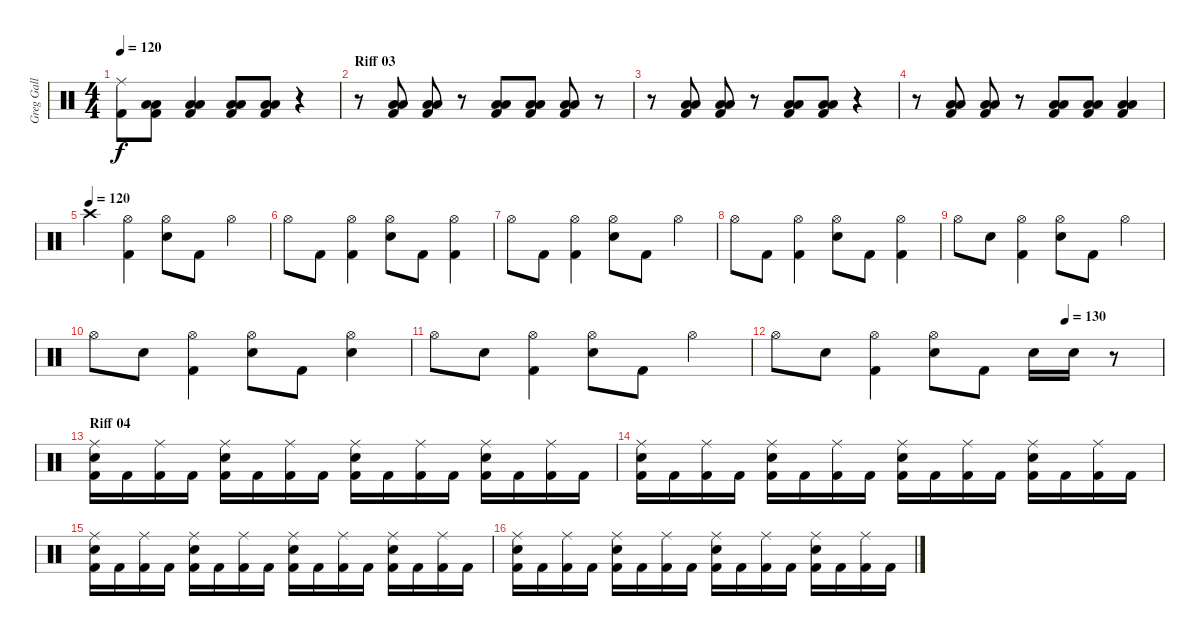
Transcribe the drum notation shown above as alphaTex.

\track ("Greg Gall" "Greg Gall") {instrument percussion}
\staff {score}
\articulation defaults
\ts (4 4)
\tempo 120
\clef neutral
\ks c
("Ride (middle)" "Kick (hit) 2").8{dy f} ("Low Floor Tom (hit)" "Low Floor Tom (hit)" "Kick (hit) 2").8 ("Low Floor Tom (hit)" "Low Floor Tom (hit)" "Kick (hit) 2").4 ("Low Floor Tom (hit)" "Low Floor Tom (hit)" "Kick (hit) 2").8 ("Low Floor Tom (hit)" "Low Floor Tom (hit)" "Kick (hit) 2").8 r.4 |
\section ("" "Riff 03")
r.8 ("Low Floor Tom (hit)" "Low Floor Tom (hit)" "Kick (hit) 2").8 ("Low Floor Tom (hit)" "Low Floor Tom (hit)" "Kick (hit) 2").8 r.8 ("Low Floor Tom (hit)" "Low Floor Tom (hit)" "Kick (hit) 2").8 ("Low Floor Tom (hit)" "Low Floor Tom (hit)" "Kick (hit) 2").8 ("Low Floor Tom (hit)" "Low Floor Tom (hit)" "Kick (hit) 2").8 r.8 |
r.8 ("Low Floor Tom (hit)" "Low Floor Tom (hit)" "Kick (hit) 2").8 ("Low Floor Tom (hit)" "Low Floor Tom (hit)" "Kick (hit) 2").8 r.8 ("Low Floor Tom (hit)" "Low Floor Tom (hit)" "Kick (hit) 2").8 ("Low Floor Tom (hit)" "Low Floor Tom (hit)" "Kick (hit) 2").8 r.4 |
r.8 ("Low Floor Tom (hit)" "Low Floor Tom (hit)" "Kick (hit) 2").8 ("Low Floor Tom (hit)" "Low Floor Tom (hit)" "Kick (hit) 2").8 r.8 ("Low Floor Tom (hit)" "Low Floor Tom (hit)" "Kick (hit) 2").8 ("Low Floor Tom (hit)" "Low Floor Tom (hit)" "Kick (hit) 2").8 ("Low Floor Tom (hit)" "Low Floor Tom (hit)" "Kick (hit) 2").4 |
\tempo (120)
"Crash high (hit)".4 ("Hi-Hat (open)" "Kick (hit) 2").4 ("Hi-Hat (open)" "Electric Snare (hit)").8 "Kick (hit) 2".8 "Hi-Hat (open)".4 |
"Hi-Hat (open)".8 "Kick (hit) 2".8 ("Hi-Hat (open)" "Kick (hit) 2").4 ("Hi-Hat (open)" "Electric Snare (hit)").8 "Kick (hit) 2".8 ("Hi-Hat (open)" "Kick (hit) 2").4 |
"Hi-Hat (open)".8 "Kick (hit) 2".8 ("Hi-Hat (open)" "Kick (hit) 2").4 ("Hi-Hat (open)" "Electric Snare (hit)").8 "Kick (hit) 2".8 "Hi-Hat (open)".4 |
"Hi-Hat (open)".8 "Kick (hit) 2".8 ("Hi-Hat (open)" "Kick (hit) 2").4 ("Hi-Hat (open)" "Electric Snare (hit)").8 "Kick (hit) 2".8 ("Hi-Hat (open)" "Kick (hit) 2").4 |
"Hi-Hat (open)".8 "Electric Snare (hit)".8 ("Hi-Hat (open)" "Kick (hit) 2").4 ("Hi-Hat (open)" "Electric Snare (hit)").8 "Kick (hit) 2".8 "Hi-Hat (open)".4 |
"Hi-Hat (open)".8 "Electric Snare (hit)".8 ("Hi-Hat (open)" "Kick (hit) 2").4 ("Hi-Hat (open)" "Electric Snare (hit)").8 "Kick (hit) 2".8 ("Hi-Hat (open)" "Electric Snare (hit)").4 |
"Hi-Hat (open)".8 "Electric Snare (hit)".8 ("Hi-Hat (open)" "Kick (hit) 2").4 ("Hi-Hat (open)" "Electric Snare (hit)").8 "Kick (hit) 2".8 "Hi-Hat (open)".4 |
\tempo (130 0.75)
"Hi-Hat (open)".8 "Electric Snare (hit)".8 ("Hi-Hat (open)" "Kick (hit) 2").4 ("Hi-Hat (open)" "Electric Snare (hit)").8 "Kick (hit) 2".8 "Electric Snare (hit)".16 "Electric Snare (hit)".16 r.8 |
\section ("" "Riff 04")
("Ride (middle)" "Electric Snare (hit)" "Kick (hit) 2").16 "Kick (hit) 2".16 ("Ride (middle)" "Kick (hit) 2").16 "Kick (hit) 2".16 ("Ride (middle)" "Electric Snare (hit)" "Kick (hit) 2").16 "Kick (hit) 2".16 ("Ride (middle)" "Kick (hit) 2").16 "Kick (hit) 2".16 ("Ride (middle)" "Electric Snare (hit)" "Kick (hit) 2").16 "Kick (hit) 2".16 ("Ride (middle)" "Kick (hit) 2").16 "Kick (hit) 2".16 ("Ride (middle)" "Electric Snare (hit)" "Kick (hit) 2").16 "Kick (hit) 2".16 ("Ride (middle)" "Kick (hit) 2").16 "Kick (hit) 2".16 |
("Ride (middle)" "Electric Snare (hit)" "Kick (hit) 2").16 "Kick (hit) 2".16 ("Ride (middle)" "Kick (hit) 2").16 "Kick (hit) 2".16 ("Ride (middle)" "Electric Snare (hit)" "Kick (hit) 2").16 "Kick (hit) 2".16 ("Ride (middle)" "Kick (hit) 2").16 "Kick (hit) 2".16 ("Ride (middle)" "Electric Snare (hit)" "Kick (hit) 2").16 "Kick (hit) 2".16 ("Ride (middle)" "Kick (hit) 2").16 "Kick (hit) 2".16 ("Ride (middle)" "Electric Snare (hit)" "Kick (hit) 2").16 "Kick (hit) 2".16 ("Ride (middle)" "Kick (hit) 2").16 "Kick (hit) 2".16 |
("Ride (middle)" "Electric Snare (hit)" "Kick (hit) 2").16 "Kick (hit) 2".16 ("Ride (middle)" "Kick (hit) 2").16 "Kick (hit) 2".16 ("Ride (middle)" "Electric Snare (hit)" "Kick (hit) 2").16 "Kick (hit) 2".16 ("Ride (middle)" "Kick (hit) 2").16 "Kick (hit) 2".16 ("Ride (middle)" "Electric Snare (hit)" "Kick (hit) 2").16 "Kick (hit) 2".16 ("Ride (middle)" "Kick (hit) 2").16 "Kick (hit) 2".16 ("Ride (middle)" "Electric Snare (hit)" "Kick (hit) 2").16 "Kick (hit) 2".16 ("Ride (middle)" "Kick (hit) 2").16 "Kick (hit) 2".16 |
("Ride (middle)" "Electric Snare (hit)" "Kick (hit) 2").16 "Kick (hit) 2".16 ("Ride (middle)" "Kick (hit) 2").16 "Kick (hit) 2".16 ("Ride (middle)" "Electric Snare (hit)" "Kick (hit) 2").16 "Kick (hit) 2".16 ("Ride (middle)" "Kick (hit) 2").16 "Kick (hit) 2".16 ("Ride (middle)" "Electric Snare (hit)" "Kick (hit) 2").16 "Kick (hit) 2".16 ("Ride (middle)" "Kick (hit) 2").16 "Kick (hit) 2".16 ("Ride (middle)" "Electric Snare (hit)" "Kick (hit) 2").16 "Kick (hit) 2".16 ("Ride (middle)" "Kick (hit) 2").16 "Kick (hit) 2".16
